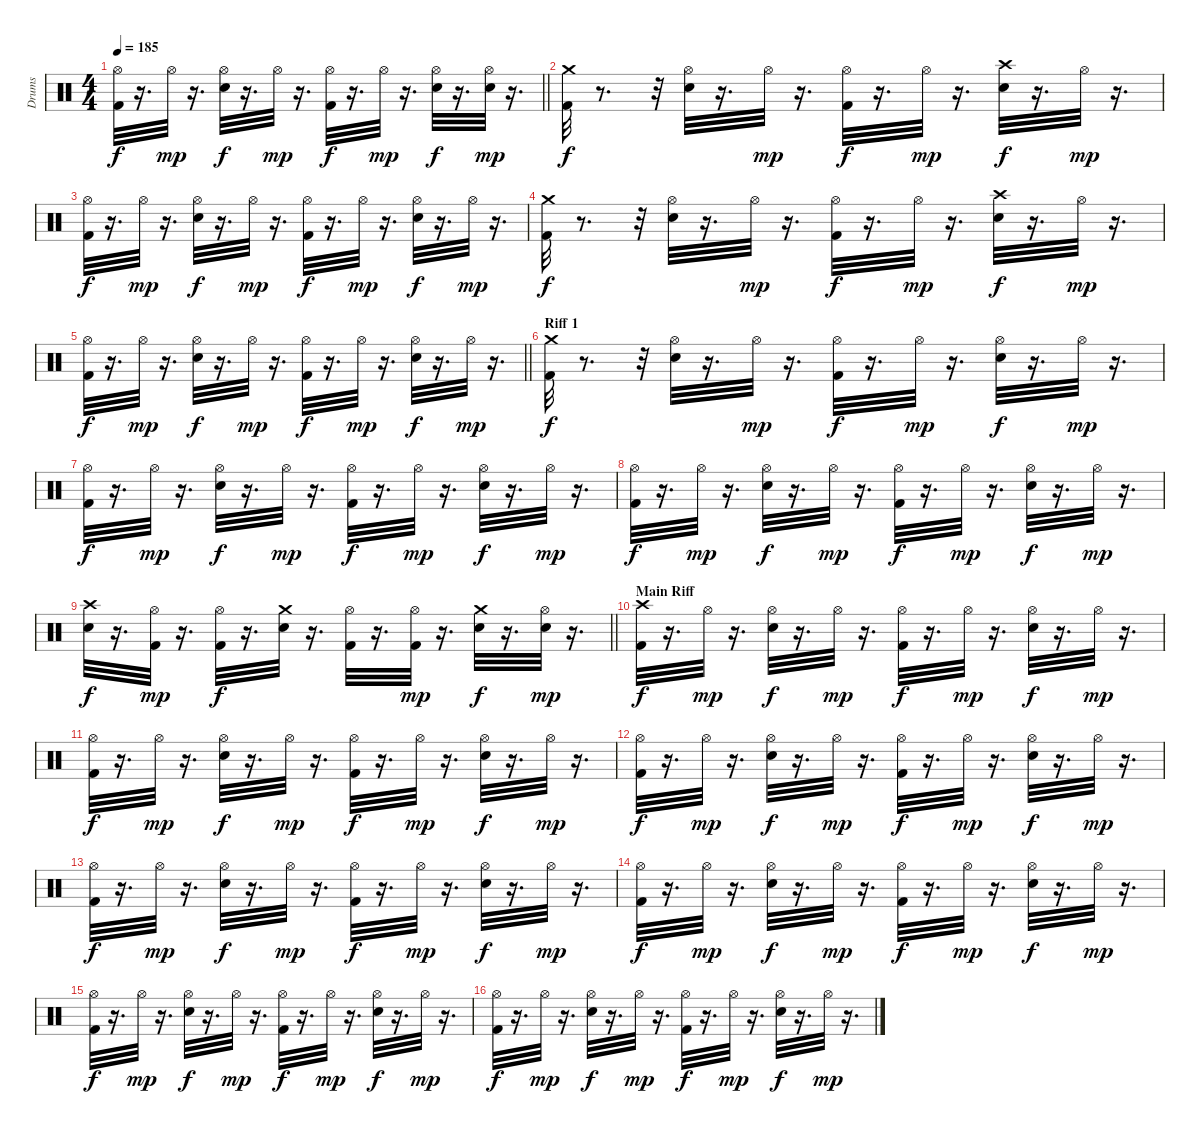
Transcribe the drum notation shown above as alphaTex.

\track ("Drums" "Drums") {instrument percussion}
\staff {score}
\articulation defaults
\ts (4 4)
\tempo 185
\clef neutral
\barLineRight lightlight
\ks c
("Hi-Hat (open)" "Kick (hit) 2").32{dy f} r.16{d} "Hi-Hat (open)".32{dy mp} r.16{d} ("Hi-Hat (open)" "Electric Snare (hit)").32{dy f} r.16{d} "Hi-Hat (open)".32{dy mp} r.16{d} ("Hi-Hat (open)" "Kick (hit) 2").32{dy f} r.16{d} "Hi-Hat (open)".32{dy mp} r.16{d} ("Hi-Hat (open)" "Electric Snare (hit)").32{dy f} r.16{d} ("Electric Snare (hit)" "Hi-Hat (open)").32{dy mp} r.16{d} |
\section ("" "")
("Crash medium (hit)" "Kick (hit) 2").32{dy f} r.8{d} r.32 ("Hi-Hat (open)" "Electric Snare (hit)").32 r.16{d} "Hi-Hat (open)".32{dy mp} r.16{d} ("Hi-Hat (open)" "Kick (hit) 2").32{dy f} r.16{d} "Hi-Hat (open)".32{dy mp} r.16{d} ("Crash high (hit)" "Electric Snare (hit)").32{dy f} r.16{d} "Hi-Hat (open)".32{dy mp} r.16{d} |
("Hi-Hat (open)" "Kick (hit) 2").32{dy f} r.16{d} "Hi-Hat (open)".32{dy mp} r.16{d} ("Hi-Hat (open)" "Electric Snare (hit)").32{dy f} r.16{d} "Hi-Hat (open)".32{dy mp} r.16{d} ("Hi-Hat (open)" "Kick (hit) 2").32{dy f} r.16{d} "Hi-Hat (open)".32{dy mp} r.16{d} ("Hi-Hat (open)" "Electric Snare (hit)").32{dy f} r.16{d} "Hi-Hat (open)".32{dy mp} r.16{d} |
("Crash medium (hit)" "Kick (hit) 2").32{dy f} r.8{d} r.32 ("Hi-Hat (open)" "Electric Snare (hit)").32 r.16{d} "Hi-Hat (open)".32{dy mp} r.16{d} ("Hi-Hat (open)" "Kick (hit) 2").32{dy f} r.16{d} "Hi-Hat (open)".32{dy mp} r.16{d} ("Crash high (hit)" "Electric Snare (hit)").32{dy f} r.16{d} "Hi-Hat (open)".32{dy mp} r.16{d} |
\barLineRight lightlight
("Hi-Hat (open)" "Kick (hit) 2").32{dy f} r.16{d} "Hi-Hat (open)".32{dy mp} r.16{d} ("Hi-Hat (open)" "Electric Snare (hit)").32{dy f} r.16{d} "Hi-Hat (open)".32{dy mp} r.16{d} ("Hi-Hat (open)" "Kick (hit) 2").32{dy f} r.16{d} "Hi-Hat (open)".32{dy mp} r.16{d} ("Hi-Hat (open)" "Electric Snare (hit)").32{dy f} r.16{d} "Hi-Hat (open)".32{dy mp} r.16{d} |
\section ("" "Riff 1")
("Crash medium (hit)" "Kick (hit) 2").32{dy f} r.8{d} r.32 ("Hi-Hat (open)" "Electric Snare (hit)").32 r.16{d} "Hi-Hat (open)".32{dy mp} r.16{d} ("Hi-Hat (open)" "Kick (hit) 2").32{dy f} r.16{d} "Hi-Hat (open)".32{dy mp} r.16{d} ("Hi-Hat (open)" "Electric Snare (hit)").32{dy f} r.16{d} "Hi-Hat (open)".32{dy mp} r.16{d} |
("Hi-Hat (open)" "Kick (hit) 2").32{dy f} r.16{d} "Hi-Hat (open)".32{dy mp} r.16{d} ("Hi-Hat (open)" "Electric Snare (hit)").32{dy f} r.16{d} "Hi-Hat (open)".32{dy mp} r.16{d} ("Hi-Hat (open)" "Kick (hit) 2").32{dy f} r.16{d} "Hi-Hat (open)".32{dy mp} r.16{d} ("Hi-Hat (open)" "Electric Snare (hit)").32{dy f} r.16{d} "Hi-Hat (open)".32{dy mp} r.16{d} |
("Hi-Hat (open)" "Kick (hit) 2").32{dy f} r.16{d} "Hi-Hat (open)".32{dy mp} r.16{d} ("Hi-Hat (open)" "Electric Snare (hit)").32{dy f} r.16{d} "Hi-Hat (open)".32{dy mp} r.16{d} ("Hi-Hat (open)" "Kick (hit) 2").32{dy f} r.16{d} "Hi-Hat (open)".32{dy mp} r.16{d} ("Hi-Hat (open)" "Electric Snare (hit)").32{dy f} r.16{d} "Hi-Hat (open)".32{dy mp} r.16{d} |
\barLineRight lightlight
("Electric Snare (hit)" "Crash high (hit)").32{dy f} r.16{d} ("Kick (hit) 2" "Hi-Hat (open)").32{dy mp} r.16{d} ("Kick (hit) 2" "Hi-Hat (open)").32{dy f} r.16{d} ("Crash medium (hit)" "Electric Snare (hit)").32 r.16{d} ("Hi-Hat (open)" "Kick (hit) 2").32 r.16{d} ("Kick (hit) 2" "Hi-Hat (open)").32{dy mp} r.16{d} ("Crash medium (hit)" "Electric Snare (hit)").32{dy f} r.16{d} ("Electric Snare (hit)" "Hi-Hat (open)").32{dy mp} r.16{d} |
\section ("" "Main Riff")
("Crash high (hit)" "Kick (hit) 2").32{dy f} r.16{d} "Hi-Hat (open)".32{dy mp} r.16{d} ("Hi-Hat (open)" "Electric Snare (hit)").32{dy f} r.16{d} "Hi-Hat (open)".32{dy mp} r.16{d} ("Hi-Hat (open)" "Kick (hit) 2").32{dy f} r.16{d} "Hi-Hat (open)".32{dy mp} r.16{d} ("Hi-Hat (open)" "Electric Snare (hit)").32{dy f} r.16{d} "Hi-Hat (open)".32{dy mp} r.16{d} |
("Hi-Hat (open)" "Kick (hit) 2").32{dy f} r.16{d} "Hi-Hat (open)".32{dy mp} r.16{d} ("Hi-Hat (open)" "Electric Snare (hit)").32{dy f} r.16{d} "Hi-Hat (open)".32{dy mp} r.16{d} ("Hi-Hat (open)" "Kick (hit) 2").32{dy f} r.16{d} "Hi-Hat (open)".32{dy mp} r.16{d} ("Hi-Hat (open)" "Electric Snare (hit)").32{dy f} r.16{d} "Hi-Hat (open)".32{dy mp} r.16{d} |
("Hi-Hat (open)" "Kick (hit) 2").32{dy f} r.16{d} "Hi-Hat (open)".32{dy mp} r.16{d} ("Hi-Hat (open)" "Electric Snare (hit)").32{dy f} r.16{d} "Hi-Hat (open)".32{dy mp} r.16{d} ("Hi-Hat (open)" "Kick (hit) 2").32{dy f} r.16{d} "Hi-Hat (open)".32{dy mp} r.16{d} ("Hi-Hat (open)" "Electric Snare (hit)").32{dy f} r.16{d} "Hi-Hat (open)".32{dy mp} r.16{d} |
("Hi-Hat (open)" "Kick (hit) 2").32{dy f} r.16{d} "Hi-Hat (open)".32{dy mp} r.16{d} ("Hi-Hat (open)" "Electric Snare (hit)").32{dy f} r.16{d} "Hi-Hat (open)".32{dy mp} r.16{d} ("Hi-Hat (open)" "Kick (hit) 2").32{dy f} r.16{d} "Hi-Hat (open)".32{dy mp} r.16{d} ("Hi-Hat (open)" "Electric Snare (hit)").32{dy f} r.16{d} "Hi-Hat (open)".32{dy mp} r.16{d} |
("Hi-Hat (open)" "Kick (hit) 2").32{dy f} r.16{d} "Hi-Hat (open)".32{dy mp} r.16{d} ("Hi-Hat (open)" "Electric Snare (hit)").32{dy f} r.16{d} "Hi-Hat (open)".32{dy mp} r.16{d} ("Hi-Hat (open)" "Kick (hit) 2").32{dy f} r.16{d} "Hi-Hat (open)".32{dy mp} r.16{d} ("Hi-Hat (open)" "Electric Snare (hit)").32{dy f} r.16{d} "Hi-Hat (open)".32{dy mp} r.16{d} |
("Hi-Hat (open)" "Kick (hit) 2").32{dy f} r.16{d} "Hi-Hat (open)".32{dy mp} r.16{d} ("Hi-Hat (open)" "Electric Snare (hit)").32{dy f} r.16{d} "Hi-Hat (open)".32{dy mp} r.16{d} ("Hi-Hat (open)" "Kick (hit) 2").32{dy f} r.16{d} "Hi-Hat (open)".32{dy mp} r.16{d} ("Hi-Hat (open)" "Electric Snare (hit)").32{dy f} r.16{d} "Hi-Hat (open)".32{dy mp} r.16{d} |
("Hi-Hat (open)" "Kick (hit) 2").32{dy f} r.16{d} "Hi-Hat (open)".32{dy mp} r.16{d} ("Hi-Hat (open)" "Electric Snare (hit)").32{dy f} r.16{d} "Hi-Hat (open)".32{dy mp} r.16{d} ("Hi-Hat (open)" "Kick (hit) 2").32{dy f} r.16{d} "Hi-Hat (open)".32{dy mp} r.16{d} ("Hi-Hat (open)" "Electric Snare (hit)").32{dy f} r.16{d} "Hi-Hat (open)".32{dy mp} r.16{d}
